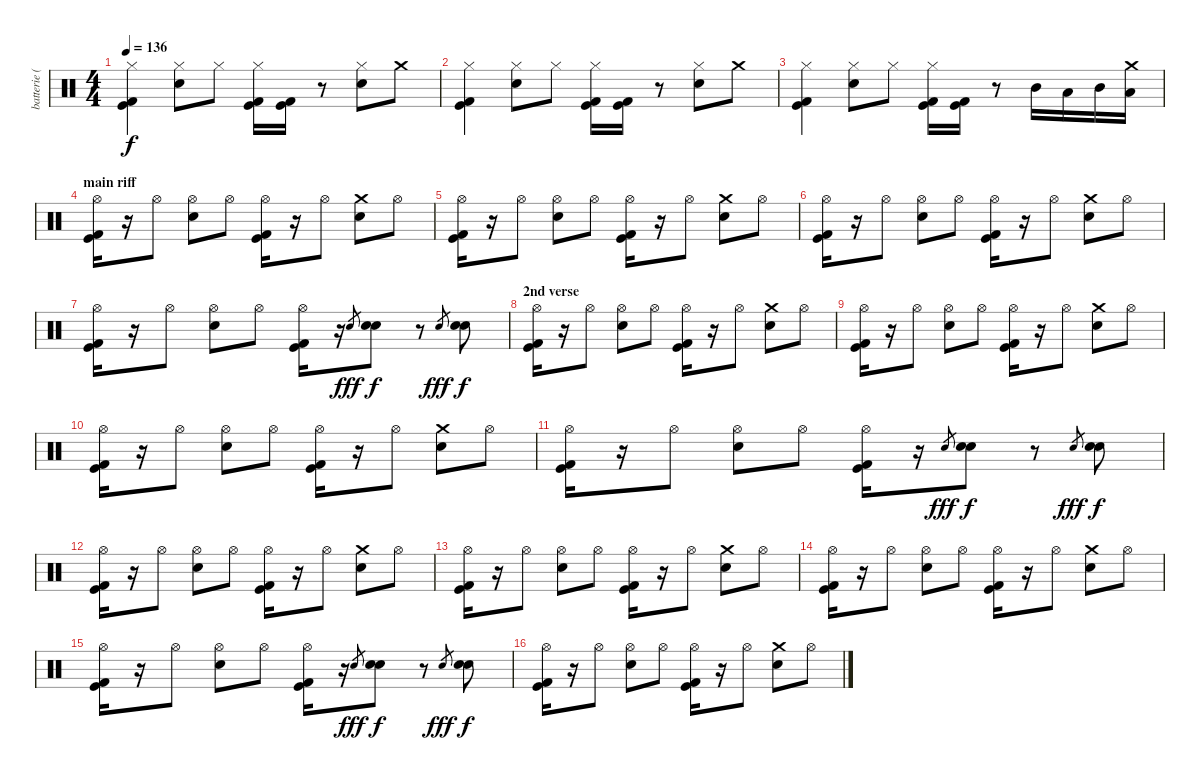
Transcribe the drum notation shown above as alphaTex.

\track ("batterie (J.Castillo)" "batterie (") {instrument percussion}
\staff {score}
\articulation defaults
\ts (4 4)
\tempo 136
\clef neutral
\ks c
("Hi-Hat (closed)" "Kick (hit) 2" "Kick (hit)").4{dy f} ("Hi-Hat (closed)" "Electric Snare (hit)").8 "Hi-Hat (closed)".8 ("Hi-Hat (closed)" "Kick (hit) 2" "Kick (hit)").16 ("Kick (hit) 2" "Kick (hit)").16 r.8 ("Hi-Hat (closed)" "Electric Snare (hit)").8 "Crash medium (hit)".8 |
("Hi-Hat (closed)" "Kick (hit) 2" "Kick (hit)").4 ("Hi-Hat (closed)" "Electric Snare (hit)").8 "Hi-Hat (closed)".8 ("Hi-Hat (closed)" "Kick (hit) 2" "Kick (hit)").16 ("Kick (hit) 2" "Kick (hit)").16 r.8 ("Hi-Hat (closed)" "Electric Snare (hit)").8 "Crash medium (hit)".8 |
("Hi-Hat (closed)" "Kick (hit) 2" "Kick (hit)").4 ("Hi-Hat (closed)" "Electric Snare (hit)").8 "Hi-Hat (closed)".8 ("Hi-Hat (closed)" "Kick (hit) 2" "Kick (hit)").16 ("Kick (hit) 2" "Kick (hit)").16 r.8 "Mid Tom (hit)".16 "Low Tom (hit)".16 "Mid Tom (hit)".16 ("Crash medium (hit)" "Low Tom (hit)").16 |
\section ("" "main riff")
("Hi-Hat (open)" "Kick (hit) 2" "Kick (hit)").16 r.16 "Hi-Hat (open)".8 ("Hi-Hat (open)" "Electric Snare (hit)").8 "Hi-Hat (open)".8 ("Hi-Hat (open)" "Kick (hit) 2" "Kick (hit)").16 r.16 "Hi-Hat (open)".8 ("Crash medium (hit)" "Electric Snare (hit)").8 "Hi-Hat (open)".8 |
("Hi-Hat (open)" "Kick (hit) 2" "Kick (hit)").16 r.16 "Hi-Hat (open)".8 ("Hi-Hat (open)" "Electric Snare (hit)").8 "Hi-Hat (open)".8 ("Hi-Hat (open)" "Kick (hit) 2" "Kick (hit)").16 r.16 "Hi-Hat (open)".8 ("Crash medium (hit)" "Electric Snare (hit)").8 "Hi-Hat (open)".8 |
("Hi-Hat (open)" "Kick (hit) 2" "Kick (hit)").16 r.16 "Hi-Hat (open)".8 ("Hi-Hat (open)" "Electric Snare (hit)").8 "Hi-Hat (open)".8 ("Hi-Hat (open)" "Kick (hit) 2" "Kick (hit)").16 r.16 "Hi-Hat (open)".8 ("Crash medium (hit)" "Electric Snare (hit)").8 "Hi-Hat (open)".8 |
("Hi-Hat (open)" "Kick (hit) 2" "Kick (hit)").16 r.16 "Hi-Hat (open)".8 ("Hi-Hat (open)" "Electric Snare (hit)").8 "Hi-Hat (open)".8 ("Hi-Hat (open)" "Kick (hit) 2" "Kick (hit)").16 r.16 "Electric Snare (hit)"{h}.8{gr dy fff} ("Electric Snare (hit)" "Electric Snare (hit)").8{dy f} r.8 "Electric Snare (hit)".8{gr dy fff} ("Electric Snare (hit)" "Electric Snare (hit)").8{dy f} |
\section ("" "2nd verse")
("Hi-Hat (open)" "Kick (hit) 2" "Kick (hit)").16 r.16 "Hi-Hat (open)".8 ("Hi-Hat (open)" "Electric Snare (hit)").8 "Hi-Hat (open)".8 ("Hi-Hat (open)" "Kick (hit) 2" "Kick (hit)").16 r.16 "Hi-Hat (open)".8 ("Crash medium (hit)" "Electric Snare (hit)").8 "Hi-Hat (open)".8 |
("Hi-Hat (open)" "Kick (hit) 2" "Kick (hit)").16 r.16 "Hi-Hat (open)".8 ("Hi-Hat (open)" "Electric Snare (hit)").8 "Hi-Hat (open)".8 ("Hi-Hat (open)" "Kick (hit) 2" "Kick (hit)").16 r.16 "Hi-Hat (open)".8 ("Crash medium (hit)" "Electric Snare (hit)").8 "Hi-Hat (open)".8 |
("Hi-Hat (open)" "Kick (hit) 2" "Kick (hit)").16 r.16 "Hi-Hat (open)".8 ("Hi-Hat (open)" "Electric Snare (hit)").8 "Hi-Hat (open)".8 ("Hi-Hat (open)" "Kick (hit) 2" "Kick (hit)").16 r.16 "Hi-Hat (open)".8 ("Crash medium (hit)" "Electric Snare (hit)").8 "Hi-Hat (open)".8 |
("Hi-Hat (open)" "Kick (hit) 2" "Kick (hit)").16 r.16 "Hi-Hat (open)".8 ("Hi-Hat (open)" "Electric Snare (hit)").8 "Hi-Hat (open)".8 ("Hi-Hat (open)" "Kick (hit) 2" "Kick (hit)").16 r.16 "Electric Snare (hit)"{h}.8{gr dy fff} ("Electric Snare (hit)" "Electric Snare (hit)").8{dy f} r.8 "Electric Snare (hit)".8{gr dy fff} ("Electric Snare (hit)" "Electric Snare (hit)").8{dy f} |
("Hi-Hat (open)" "Kick (hit) 2" "Kick (hit)").16 r.16 "Hi-Hat (open)".8 ("Hi-Hat (open)" "Electric Snare (hit)").8 "Hi-Hat (open)".8 ("Hi-Hat (open)" "Kick (hit) 2" "Kick (hit)").16 r.16 "Hi-Hat (open)".8 ("Crash medium (hit)" "Electric Snare (hit)").8 "Hi-Hat (open)".8 |
("Hi-Hat (open)" "Kick (hit) 2" "Kick (hit)").16 r.16 "Hi-Hat (open)".8 ("Hi-Hat (open)" "Electric Snare (hit)").8 "Hi-Hat (open)".8 ("Hi-Hat (open)" "Kick (hit) 2" "Kick (hit)").16 r.16 "Hi-Hat (open)".8 ("Crash medium (hit)" "Electric Snare (hit)").8 "Hi-Hat (open)".8 |
("Hi-Hat (open)" "Kick (hit) 2" "Kick (hit)").16 r.16 "Hi-Hat (open)".8 ("Hi-Hat (open)" "Electric Snare (hit)").8 "Hi-Hat (open)".8 ("Hi-Hat (open)" "Kick (hit) 2" "Kick (hit)").16 r.16 "Hi-Hat (open)".8 ("Crash medium (hit)" "Electric Snare (hit)").8 "Hi-Hat (open)".8 |
("Hi-Hat (open)" "Kick (hit) 2" "Kick (hit)").16 r.16 "Hi-Hat (open)".8 ("Hi-Hat (open)" "Electric Snare (hit)").8 "Hi-Hat (open)".8 ("Hi-Hat (open)" "Kick (hit) 2" "Kick (hit)").16 r.16 "Electric Snare (hit)"{h}.8{gr dy fff} ("Electric Snare (hit)" "Electric Snare (hit)").8{dy f} r.8 "Electric Snare (hit)".8{gr dy fff} ("Electric Snare (hit)" "Electric Snare (hit)").8{dy f} |
("Hi-Hat (open)" "Kick (hit) 2" "Kick (hit)").16 r.16 "Hi-Hat (open)".8 ("Hi-Hat (open)" "Electric Snare (hit)").8 "Hi-Hat (open)".8 ("Hi-Hat (open)" "Kick (hit) 2" "Kick (hit)").16 r.16 "Hi-Hat (open)".8 ("Crash medium (hit)" "Electric Snare (hit)").8 "Hi-Hat (open)".8
